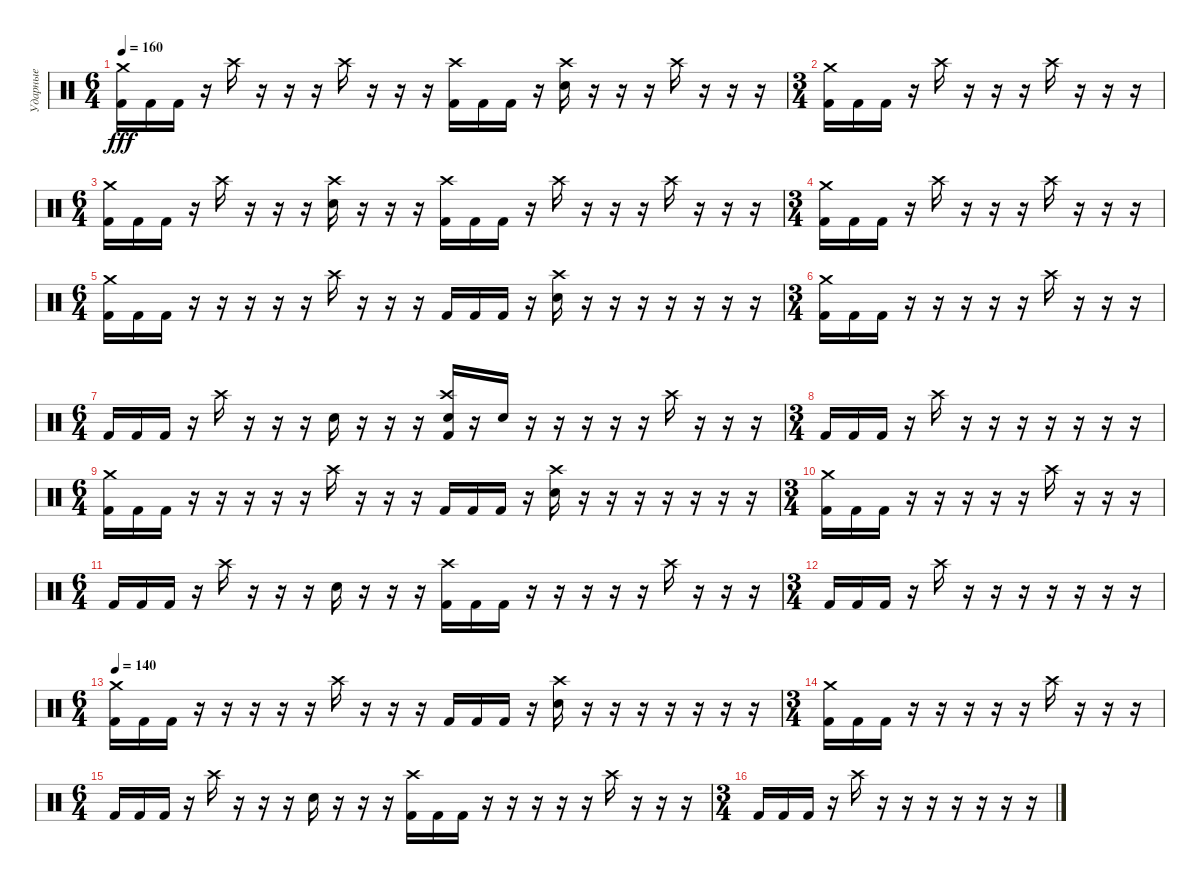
\track ("Ударные" "Ударные") {instrument percussion}
\staff {score}
\articulation defaults
\ts (6 4)
\tempo 160
\clef neutral
\ks c
("Crash medium (hit)" "Kick (hit) 2").16{dy fff} "Kick (hit) 2".16 "Kick (hit) 2".16 r.16 "Crash high (hit)".16 r.16 r.16 r.16 "Crash high (hit)".16 r.16 r.16 r.16 ("Crash high (hit)" "Kick (hit) 2").16 "Kick (hit) 2".16 "Kick (hit) 2".16 r.16 ("Crash high (hit)" "Snare (hit) 2").16 r.16 r.16 r.16 "Crash high (hit)".16 r.16 r.16 r.16 |
\ts (3 4)
("Crash medium (hit)" "Kick (hit) 2").16 "Kick (hit) 2".16 "Kick (hit) 2".16 r.16 "Crash high (hit)".16 r.16 r.16 r.16 "Crash high (hit)".16 r.16 r.16 r.16 |
\ts (6 4)
("Crash medium (hit)" "Kick (hit) 2").16 "Kick (hit) 2".16 "Kick (hit) 2".16 r.16 "Crash high (hit)".16 r.16 r.16 r.16 ("Crash high (hit)" "Snare (hit) 2").16 r.16 r.16 r.16 ("Crash high (hit)" "Kick (hit) 2").16 "Kick (hit) 2".16 "Kick (hit) 2".16 r.16 "Crash high (hit)".16 r.16 r.16 r.16 "Crash high (hit)".16 r.16 r.16 r.16 |
\ts (3 4)
("Crash medium (hit)" "Kick (hit) 2").16 "Kick (hit) 2".16 "Kick (hit) 2".16 r.16 "Crash high (hit)".16 r.16 r.16 r.16 "Crash high (hit)".16 r.16 r.16 r.16 |
\ts (6 4)
("Crash medium (hit)" "Kick (hit) 2").16 "Kick (hit) 2".16 "Kick (hit) 2".16 r.16 r.16 r.16 r.16 r.16 "Crash high (hit)".16 r.16 r.16 r.16 "Kick (hit) 2".16 "Kick (hit) 2".16 "Kick (hit) 2".16 r.16 ("Crash high (hit)" "Snare (hit) 2").16 r.16 r.16 r.16 r.16 r.16 r.16 r.16 |
\ts (3 4)
("Crash medium (hit)" "Kick (hit) 2").16 "Kick (hit) 2".16 "Kick (hit) 2".16 r.16 r.16 r.16 r.16 r.16 "Crash high (hit)".16 r.16 r.16 r.16 |
\ts (6 4)
"Kick (hit) 2".16 "Kick (hit) 2".16 "Kick (hit) 2".16 r.16 "Crash high (hit)".16 r.16 r.16 r.16 "Snare (hit) 2".16 r.16 r.16 r.16 ("Crash high (hit)" "Snare (hit) 2" "Kick (hit) 2").16 r.16 "Snare (hit) 2".16 r.16 r.16 r.16 r.16 r.16 "Crash high (hit)".16 r.16 r.16 r.16 |
\ts (3 4)
"Kick (hit) 2".16 "Kick (hit) 2".16 "Kick (hit) 2".16 r.16 "Crash high (hit)".16 r.16 r.16 r.16 r.16 r.16 r.16 r.16 |
\ts (6 4)
("Crash medium (hit)" "Kick (hit) 2").16 "Kick (hit) 2".16 "Kick (hit) 2".16 r.16 r.16 r.16 r.16 r.16 "Crash high (hit)".16 r.16 r.16 r.16 "Kick (hit) 2".16 "Kick (hit) 2".16 "Kick (hit) 2".16 r.16 ("Crash high (hit)" "Snare (hit) 2").16 r.16 r.16 r.16 r.16 r.16 r.16 r.16 |
\ts (3 4)
("Crash medium (hit)" "Kick (hit) 2").16 "Kick (hit) 2".16 "Kick (hit) 2".16 r.16 r.16 r.16 r.16 r.16 "Crash high (hit)".16 r.16 r.16 r.16 |
\ts (6 4)
"Kick (hit) 2".16 "Kick (hit) 2".16 "Kick (hit) 2".16 r.16 "Crash high (hit)".16 r.16 r.16 r.16 "Snare (hit) 2".16 r.16 r.16 r.16 ("Crash high (hit)" "Kick (hit) 2").16 "Kick (hit) 2".16 "Kick (hit) 2".16 r.16 r.16 r.16 r.16 r.16 "Crash high (hit)".16 r.16 r.16 r.16 |
\ts (3 4)
"Kick (hit) 2".16 "Kick (hit) 2".16 "Kick (hit) 2".16 r.16 "Crash high (hit)".16 r.16 r.16 r.16 r.16 r.16 r.16 r.16 |
\ts (6 4)
\tempo 130
\tempo 140
("Crash medium (hit)" "Kick (hit) 2").16 "Kick (hit) 2".16 "Kick (hit) 2".16 r.16 r.16 r.16 r.16 r.16 "Crash high (hit)".16 r.16 r.16 r.16 "Kick (hit) 2".16 "Kick (hit) 2".16 "Kick (hit) 2".16 r.16 ("Crash high (hit)" "Snare (hit) 2").16 r.16 r.16 r.16 r.16 r.16 r.16 r.16 |
\ts (3 4)
("Crash medium (hit)" "Kick (hit) 2").16 "Kick (hit) 2".16 "Kick (hit) 2".16 r.16 r.16 r.16 r.16 r.16 "Crash high (hit)".16 r.16 r.16 r.16 |
\ts (6 4)
"Kick (hit) 2".16 "Kick (hit) 2".16 "Kick (hit) 2".16 r.16 "Crash high (hit)".16 r.16 r.16 r.16 "Snare (hit) 2".16 r.16 r.16 r.16 ("Crash high (hit)" "Kick (hit) 2").16 "Kick (hit) 2".16 "Kick (hit) 2".16 r.16 r.16 r.16 r.16 r.16 "Crash high (hit)".16 r.16 r.16 r.16 |
\ts (3 4)
"Kick (hit) 2".16 "Kick (hit) 2".16 "Kick (hit) 2".16 r.16 "Crash high (hit)".16 r.16 r.16 r.16 r.16 r.16 r.16 r.16
